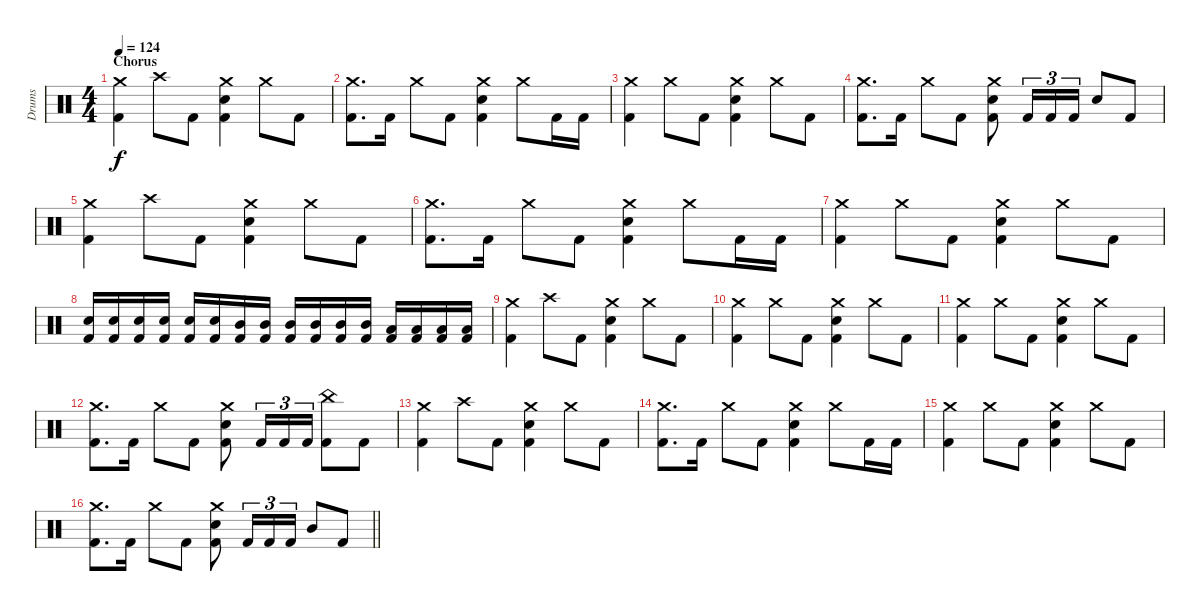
\track ("Drums" "Drums") {instrument percussion}
\staff {score}
\articulation defaults
\ts (4 4)
\section ("" "Chorus")
\tempo 124
\clef neutral
\ks c
("Crash medium (hit)" "Kick (hit) 2").4{dy f} "Crash high (hit)".8 "Kick (hit) 2".8 ("Crash medium (hit)" "Electric Snare (hit)" "Kick (hit) 2").4 "Crash medium (hit)".8 "Kick (hit) 2".8 |
("Crash medium (hit)" "Kick (hit) 2").8{d} "Kick (hit) 2".16 "Crash medium (hit)".8 "Kick (hit) 2".8 ("Crash medium (hit)" "Electric Snare (hit)" "Kick (hit) 2").4 "Crash medium (hit)".8 "Kick (hit) 2".16 "Kick (hit) 2".16 |
("Crash medium (hit)" "Kick (hit) 2").4 "Crash medium (hit)".8 "Kick (hit) 2".8 ("Crash medium (hit)" "Electric Snare (hit)" "Kick (hit) 2").4 "Crash medium (hit)".8 "Kick (hit) 2".8 |
("Crash medium (hit)" "Kick (hit) 2").8{d} "Kick (hit) 2".16 "Crash medium (hit)".8 "Kick (hit) 2".8 ("Crash medium (hit)" "Electric Snare (hit)" "Kick (hit) 2").8 "Kick (hit) 2".16{tu (3 2)} "Kick (hit) 2".16{tu (3 2)} "Kick (hit) 2".16{tu (3 2)} "Electric Snare (hit)".8 "Kick (hit) 2".8 |
("Crash medium (hit)" "Kick (hit) 2").4 "Crash high (hit)".8 "Kick (hit) 2".8 ("Crash medium (hit)" "Electric Snare (hit)" "Kick (hit) 2").4 "Crash medium (hit)".8 "Kick (hit) 2".8 |
("Crash medium (hit)" "Kick (hit) 2").8{d} "Kick (hit) 2".16 "Crash medium (hit)".8 "Kick (hit) 2".8 ("Crash medium (hit)" "Electric Snare (hit)" "Kick (hit) 2").4 "Crash medium (hit)".8 "Kick (hit) 2".16 "Kick (hit) 2".16 |
("Crash medium (hit)" "Kick (hit) 2").4 "Crash medium (hit)".8 "Kick (hit) 2".8 ("Crash medium (hit)" "Electric Snare (hit)" "Kick (hit) 2").4 "Crash medium (hit)".8 "Kick (hit) 2".8 |
("Electric Snare (hit)" "Kick (hit) 2").16 ("Electric Snare (hit)" "Kick (hit) 2").16 ("Electric Snare (hit)" "Kick (hit) 2").16 ("Electric Snare (hit)" "Kick (hit) 2").16 ("Electric Snare (hit)" "Kick (hit) 2").16 ("Electric Snare (hit)" "Kick (hit) 2").16 ("Mid Tom (hit)" "Kick (hit) 2").16 ("Mid Tom (hit)" "Kick (hit) 2").16 ("Mid Tom (hit)" "Kick (hit) 2").16 ("Mid Tom (hit)" "Kick (hit) 2").16 ("Mid Tom (hit)" "Kick (hit) 2").16 ("Mid Tom (hit)" "Kick (hit) 2").16 ("Low Tom (hit)" "Kick (hit) 2").16 ("Low Tom (hit)" "Kick (hit) 2").16 ("Low Tom (hit)" "Kick (hit) 2").16 ("Low Tom (hit)" "Kick (hit) 2").16 |
("Crash medium (hit)" "Kick (hit) 2").4 "Crash high (hit)".8 "Kick (hit) 2".8 ("Crash medium (hit)" "Electric Snare (hit)" "Kick (hit) 2").4 "Crash medium (hit)".8 "Kick (hit) 2".8 |
("Crash medium (hit)" "Kick (hit) 2").4 "Crash medium (hit)".8 "Kick (hit) 2".8 ("Crash medium (hit)" "Electric Snare (hit)" "Kick (hit) 2").4 "Crash medium (hit)".8 "Kick (hit) 2".8 |
("Crash medium (hit)" "Kick (hit) 2").4 "Crash medium (hit)".8 "Kick (hit) 2".8 ("Crash medium (hit)" "Electric Snare (hit)" "Kick (hit) 2").4 "Crash medium (hit)".8 "Kick (hit) 2".8 |
("Crash medium (hit)" "Kick (hit) 2").8{d} "Kick (hit) 2".16 "Crash medium (hit)".8 "Kick (hit) 2".8 ("Crash medium (hit)" "Electric Snare (hit)" "Kick (hit) 2").8 "Kick (hit) 2".16{tu (3 2)} "Kick (hit) 2".16{tu (3 2)} "Kick (hit) 2".16{tu (3 2)} ("China (hit)" "Kick (hit) 2").8 "Kick (hit) 2".8 |
("Crash medium (hit)" "Kick (hit) 2").4 "Crash high (hit)".8 "Kick (hit) 2".8 ("Crash medium (hit)" "Electric Snare (hit)" "Kick (hit) 2").4 "Crash medium (hit)".8 "Kick (hit) 2".8 |
("Crash medium (hit)" "Kick (hit) 2").8{d} "Kick (hit) 2".16 "Crash medium (hit)".8 "Kick (hit) 2".8 ("Crash medium (hit)" "Electric Snare (hit)" "Kick (hit) 2").4 "Crash medium (hit)".8 "Kick (hit) 2".16 "Kick (hit) 2".16 |
("Crash medium (hit)" "Kick (hit) 2").4 "Crash medium (hit)".8 "Kick (hit) 2".8 ("Crash medium (hit)" "Electric Snare (hit)" "Kick (hit) 2").4 "Crash medium (hit)".8 "Kick (hit) 2".8 |
\barLineRight lightlight
("Crash medium (hit)" "Kick (hit) 2").8{d} "Kick (hit) 2".16 "Crash medium (hit)".8 "Kick (hit) 2".8 ("Crash medium (hit)" "Electric Snare (hit)" "Kick (hit) 2").8 "Kick (hit) 2".16{tu (3 2)} "Kick (hit) 2".16{tu (3 2)} "Kick (hit) 2".16{tu (3 2)} "Mid Tom (hit)".8 "Kick (hit) 2".8
